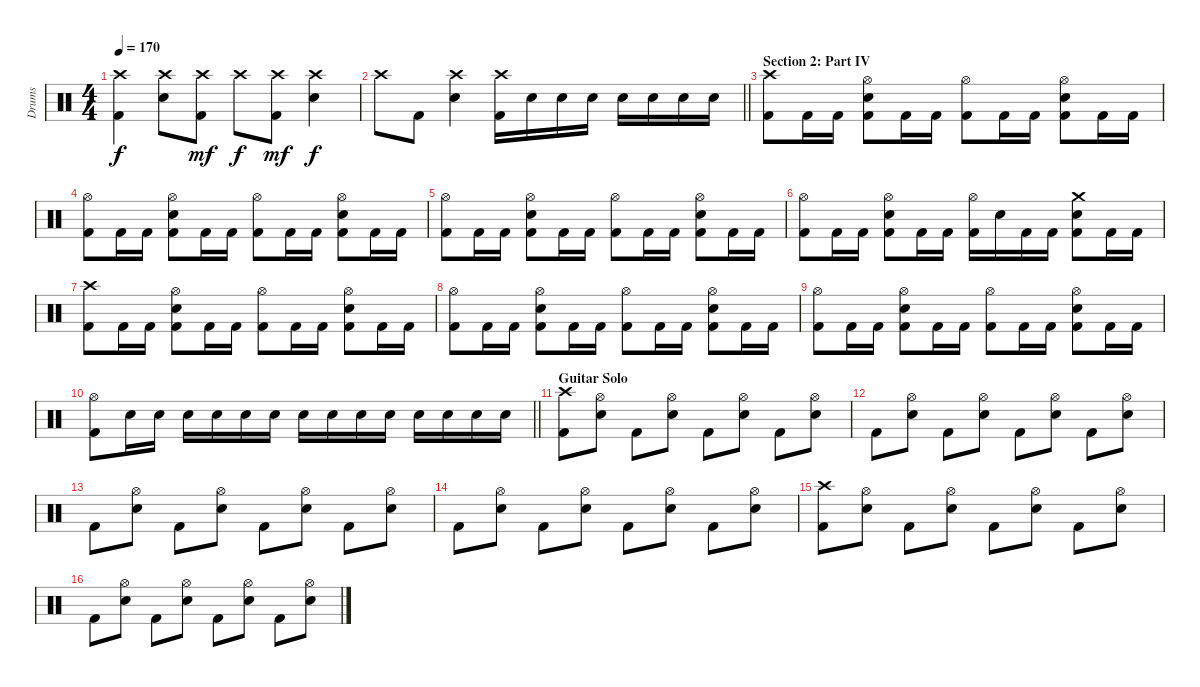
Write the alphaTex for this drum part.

\track ("Drums" "Drums") {instrument percussion}
\staff {score}
\articulation defaults
\ts (4 4)
\tempo 170
\clef neutral
\ks c
("Crash high (hit)" "Kick (hit) 2").4{dy f} ("Crash high (hit)" "Electric Snare (hit)").8 ("Crash high (hit)" "Kick (hit) 2").8{dy mf} "Crash high (hit)".8{dy f} ("Crash high (hit)" "Kick (hit) 2").8{dy mf} ("Crash high (hit)" "Electric Snare (hit)").4{dy f} |
\barLineRight lightlight "Crash high (hit)".8 "Kick (hit) 2".8
("Crash high (hit)" "Electric Snare (hit)").4 ("Crash high (hit)" "Kick (hit) 2").16 "Electric Snare (hit)".16 "Electric Snare (hit)".16 "Electric Snare (hit)".16 "Electric Snare (hit)".16 "Electric Snare (hit)".16 "Electric Snare (hit)".16 "Electric Snare (hit)".16 |
\section ("" "Section 2: Part IV")
("Crash high (hit)" "Kick (hit) 2").8 "Kick (hit) 2".16 "Kick (hit) 2".16 ("Hi-Hat (open)" "Electric Snare (hit)" "Kick (hit) 2").8 "Kick (hit) 2".16 "Kick (hit) 2".16 ("Hi-Hat (open)" "Kick (hit) 2").8 "Kick (hit) 2".16 "Kick (hit) 2".16 ("Hi-Hat (open)" "Electric Snare (hit)" "Kick (hit) 2").8 "Kick (hit) 2".16 "Kick (hit) 2".16 |
("Hi-Hat (open)" "Kick (hit) 2").8 "Kick (hit) 2".16 "Kick (hit) 2".16 ("Hi-Hat (open)" "Electric Snare (hit)" "Kick (hit) 2").8 "Kick (hit) 2".16 "Kick (hit) 2".16 ("Hi-Hat (open)" "Kick (hit) 2").8 "Kick (hit) 2".16 "Kick (hit) 2".16 ("Hi-Hat (open)" "Electric Snare (hit)" "Kick (hit) 2").8 "Kick (hit) 2".16 "Kick (hit) 2".16 |
("Hi-Hat (open)" "Kick (hit) 2").8 "Kick (hit) 2".16 "Kick (hit) 2".16 ("Hi-Hat (open)" "Electric Snare (hit)" "Kick (hit) 2").8 "Kick (hit) 2".16 "Kick (hit) 2".16 ("Hi-Hat (open)" "Kick (hit) 2").8 "Kick (hit) 2".16 "Kick (hit) 2".16 ("Hi-Hat (open)" "Electric Snare (hit)" "Kick (hit) 2").8 "Kick (hit) 2".16 "Kick (hit) 2".16 |
("Hi-Hat (open)" "Kick (hit) 2").8 "Kick (hit) 2".16 "Kick (hit) 2".16 ("Hi-Hat (open)" "Electric Snare (hit)" "Kick (hit) 2").8 "Kick (hit) 2".16 "Kick (hit) 2".16 ("Hi-Hat (open)" "Kick (hit) 2").16 "Electric Snare (hit)".16 "Kick (hit) 2".16 "Kick (hit) 2".16 ("Crash medium (hit)" "Electric Snare (hit)" "Kick (hit) 2").8 "Kick (hit) 2".16 "Kick (hit) 2".16 |
("Crash high (hit)" "Kick (hit) 2").8 "Kick (hit) 2".16 "Kick (hit) 2".16 ("Hi-Hat (open)" "Electric Snare (hit)" "Kick (hit) 2").8 "Kick (hit) 2".16 "Kick (hit) 2".16 ("Hi-Hat (open)" "Kick (hit) 2").8 "Kick (hit) 2".16 "Kick (hit) 2".16 ("Hi-Hat (open)" "Electric Snare (hit)" "Kick (hit) 2").8 "Kick (hit) 2".16 "Kick (hit) 2".16 |
("Hi-Hat (open)" "Kick (hit) 2").8 "Kick (hit) 2".16 "Kick (hit) 2".16 ("Hi-Hat (open)" "Electric Snare (hit)" "Kick (hit) 2").8 "Kick (hit) 2".16 "Kick (hit) 2".16 ("Hi-Hat (open)" "Kick (hit) 2").8 "Kick (hit) 2".16 "Kick (hit) 2".16 ("Hi-Hat (open)" "Electric Snare (hit)" "Kick (hit) 2").8 "Kick (hit) 2".16 "Kick (hit) 2".16 |
("Hi-Hat (open)" "Kick (hit) 2").8 "Kick (hit) 2".16 "Kick (hit) 2".16 ("Hi-Hat (open)" "Electric Snare (hit)" "Kick (hit) 2").8 "Kick (hit) 2".16 "Kick (hit) 2".16 ("Hi-Hat (open)" "Kick (hit) 2").8 "Kick (hit) 2".16 "Kick (hit) 2".16 ("Hi-Hat (open)" "Electric Snare (hit)" "Kick (hit) 2").8 "Kick (hit) 2".16 "Kick (hit) 2".16 |
\barLineRight lightlight
("Hi-Hat (open)" "Kick (hit) 2").8 "Electric Snare (hit)".16 "Electric Snare (hit)".16 "Electric Snare (hit)".16 "Electric Snare (hit)".16 "Electric Snare (hit)".16 "Electric Snare (hit)".16 "Electric Snare (hit)".16 "Electric Snare (hit)".16 "Electric Snare (hit)".16 "Electric Snare (hit)".16 "Electric Snare (hit)".16 "Electric Snare (hit)".16 "Electric Snare (hit)".16 "Electric Snare (hit)".16 |
\section ("" "Guitar Solo")
("Crash high (hit)" "Kick (hit) 2").8 ("Hi-Hat (open)" "Electric Snare (hit)").8 "Kick (hit) 2".8 ("Hi-Hat (open)" "Electric Snare (hit)").8 "Kick (hit) 2".8 ("Hi-Hat (open)" "Electric Snare (hit)").8 "Kick (hit) 2".8 ("Hi-Hat (open)" "Electric Snare (hit)").8 |
"Kick (hit) 2".8 ("Hi-Hat (open)" "Electric Snare (hit)").8 "Kick (hit) 2".8 ("Hi-Hat (open)" "Electric Snare (hit)").8 "Kick (hit) 2".8 ("Hi-Hat (open)" "Electric Snare (hit)").8 "Kick (hit) 2".8 ("Hi-Hat (open)" "Electric Snare (hit)").8 |
"Kick (hit) 2".8 ("Hi-Hat (open)" "Electric Snare (hit)").8 "Kick (hit) 2".8 ("Hi-Hat (open)" "Electric Snare (hit)").8 "Kick (hit) 2".8 ("Hi-Hat (open)" "Electric Snare (hit)").8 "Kick (hit) 2".8 ("Hi-Hat (open)" "Electric Snare (hit)").8 |
"Kick (hit) 2".8 ("Hi-Hat (open)" "Electric Snare (hit)").8 "Kick (hit) 2".8 ("Hi-Hat (open)" "Electric Snare (hit)").8 "Kick (hit) 2".8 ("Hi-Hat (open)" "Electric Snare (hit)").8 "Kick (hit) 2".8 ("Hi-Hat (open)" "Electric Snare (hit)").8 |
("Crash high (hit)" "Kick (hit) 2").8 ("Hi-Hat (open)" "Electric Snare (hit)").8 "Kick (hit) 2".8 ("Hi-Hat (open)" "Electric Snare (hit)").8 "Kick (hit) 2".8 ("Hi-Hat (open)" "Electric Snare (hit)").8 "Kick (hit) 2".8 ("Hi-Hat (open)" "Electric Snare (hit)").8 |
"Kick (hit) 2".8 ("Hi-Hat (open)" "Electric Snare (hit)").8 "Kick (hit) 2".8 ("Hi-Hat (open)" "Electric Snare (hit)").8 "Kick (hit) 2".8 ("Hi-Hat (open)" "Electric Snare (hit)").8 "Kick (hit) 2".8 ("Hi-Hat (open)" "Electric Snare (hit)").8
